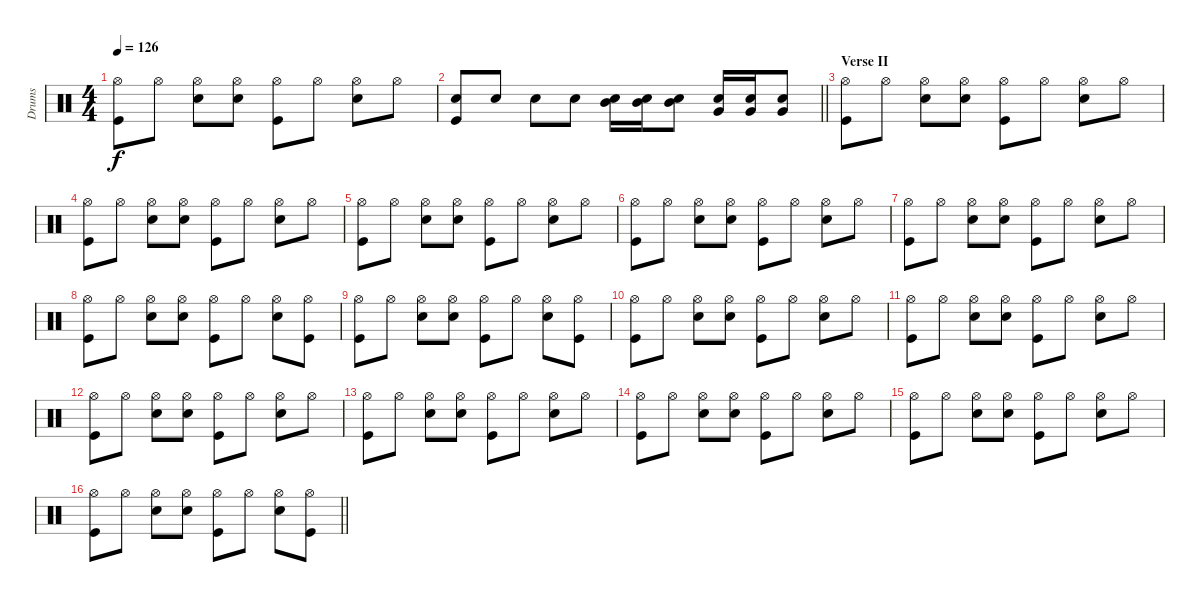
\track ("Drums" "Drums") {instrument percussion}
\staff {score}
\articulation defaults
\ts (4 4)
\tempo 126
\clef neutral
\ks c
("Hi-Hat (open)" "Kick (hit)").8{dy f} "Hi-Hat (open)".8 ("Hi-Hat (open)" "Snare (hit) 2").8 ("Hi-Hat (open)" "Snare (hit) 2").8 ("Hi-Hat (open)" "Kick (hit)").8 "Hi-Hat (open)".8 ("Hi-Hat (open)" "Snare (hit) 2").8 "Hi-Hat (open)".8 |
\barLineRight lightlight
("Kick (hit)" "Snare (hit) 2").8 "Snare (hit) 2".8 "Snare (hit) 2".8 "Snare (hit) 2".8 ("Snare (hit) 2" "Mid Tom (hit)").16 ("Snare (hit) 2" "Mid Tom (hit)").16 ("Snare (hit) 2" "Mid Tom (hit)").8 ("Very Low Tom (hit)" "Snare (hit) 2").16 ("Very Low Tom (hit)" "Snare (hit) 2").16 ("Snare (hit) 2" "Very Low Tom (hit)").8 |
\section ("" "Verse II")
("Kick (hit)" "Hi-Hat (open)").8 "Hi-Hat (open)".8 ("Hi-Hat (open)" "Snare (hit) 2").8 ("Hi-Hat (open)" "Snare (hit) 2").8 ("Hi-Hat (open)" "Kick (hit)").8 "Hi-Hat (open)".8 ("Hi-Hat (open)" "Snare (hit) 2").8 "Hi-Hat (open)".8 |
("Kick (hit)" "Hi-Hat (open)").8 "Hi-Hat (open)".8 ("Hi-Hat (open)" "Snare (hit) 2").8 ("Hi-Hat (open)" "Snare (hit) 2").8 ("Hi-Hat (open)" "Kick (hit)").8 "Hi-Hat (open)".8 ("Hi-Hat (open)" "Snare (hit) 2").8 "Hi-Hat (open)".8 |
("Kick (hit)" "Hi-Hat (open)").8 "Hi-Hat (open)".8 ("Hi-Hat (open)" "Snare (hit) 2").8 ("Hi-Hat (open)" "Snare (hit) 2").8 ("Hi-Hat (open)" "Kick (hit)").8 "Hi-Hat (open)".8 ("Hi-Hat (open)" "Snare (hit) 2").8 "Hi-Hat (open)".8 |
("Kick (hit)" "Hi-Hat (open)").8 "Hi-Hat (open)".8 ("Hi-Hat (open)" "Snare (hit) 2").8 ("Hi-Hat (open)" "Snare (hit) 2").8 ("Hi-Hat (open)" "Kick (hit)").8 "Hi-Hat (open)".8 ("Hi-Hat (open)" "Snare (hit) 2").8 "Hi-Hat (open)".8 |
("Hi-Hat (open)" "Kick (hit)").8 "Hi-Hat (open)".8 ("Hi-Hat (open)" "Snare (hit) 2").8 ("Hi-Hat (open)" "Snare (hit) 2").8 ("Hi-Hat (open)" "Kick (hit)").8 "Hi-Hat (open)".8 ("Hi-Hat (open)" "Snare (hit) 2").8 "Hi-Hat (open)".8 |
("Kick (hit)" "Hi-Hat (open)").8 "Hi-Hat (open)".8 ("Hi-Hat (open)" "Snare (hit) 2").8 ("Hi-Hat (open)" "Snare (hit) 2").8 ("Hi-Hat (open)" "Kick (hit)").8 "Hi-Hat (open)".8 ("Hi-Hat (open)" "Snare (hit) 2").8 ("Hi-Hat (open)" "Kick (hit)").8 |
("Hi-Hat (open)" "Kick (hit)").8 "Hi-Hat (open)".8 ("Hi-Hat (open)" "Snare (hit) 2").8 ("Hi-Hat (open)" "Snare (hit) 2").8 ("Hi-Hat (open)" "Kick (hit)").8 "Hi-Hat (open)".8 ("Hi-Hat (open)" "Snare (hit) 2").8 ("Hi-Hat (open)" "Kick (hit)").8 |
("Kick (hit)" "Hi-Hat (open)").8 "Hi-Hat (open)".8 ("Hi-Hat (open)" "Snare (hit) 2").8 ("Hi-Hat (open)" "Snare (hit) 2").8 ("Hi-Hat (open)" "Kick (hit)").8 "Hi-Hat (open)".8 ("Hi-Hat (open)" "Snare (hit) 2").8 "Hi-Hat (open)".8 |
("Kick (hit)" "Hi-Hat (open)").8 "Hi-Hat (open)".8 ("Hi-Hat (open)" "Snare (hit) 2").8 ("Hi-Hat (open)" "Snare (hit) 2").8 ("Hi-Hat (open)" "Kick (hit)").8 "Hi-Hat (open)".8 ("Hi-Hat (open)" "Snare (hit) 2").8 "Hi-Hat (open)".8 |
("Kick (hit)" "Hi-Hat (open)").8 "Hi-Hat (open)".8 ("Hi-Hat (open)" "Snare (hit) 2").8 ("Hi-Hat (open)" "Snare (hit) 2").8 ("Hi-Hat (open)" "Kick (hit)").8 "Hi-Hat (open)".8 ("Hi-Hat (open)" "Snare (hit) 2").8 "Hi-Hat (open)".8 |
("Kick (hit)" "Hi-Hat (open)").8 "Hi-Hat (open)".8 ("Hi-Hat (open)" "Snare (hit) 2").8 ("Hi-Hat (open)" "Snare (hit) 2").8 ("Hi-Hat (open)" "Kick (hit)").8 "Hi-Hat (open)".8 ("Hi-Hat (open)" "Snare (hit) 2").8 "Hi-Hat (open)".8 |
("Hi-Hat (open)" "Kick (hit)").8 "Hi-Hat (open)".8 ("Hi-Hat (open)" "Snare (hit) 2").8 ("Hi-Hat (open)" "Snare (hit) 2").8 ("Hi-Hat (open)" "Kick (hit)").8 "Hi-Hat (open)".8 ("Hi-Hat (open)" "Snare (hit) 2").8 "Hi-Hat (open)".8 |
("Kick (hit)" "Hi-Hat (open)").8 "Hi-Hat (open)".8 ("Hi-Hat (open)" "Snare (hit) 2").8 ("Hi-Hat (open)" "Snare (hit) 2").8 ("Hi-Hat (open)" "Kick (hit)").8 "Hi-Hat (open)".8 ("Hi-Hat (open)" "Snare (hit) 2").8 "Hi-Hat (open)".8 |
\barLineRight lightlight
("Kick (hit)" "Hi-Hat (open)").8 "Hi-Hat (open)".8 ("Hi-Hat (open)" "Snare (hit) 2").8 ("Hi-Hat (open)" "Snare (hit) 2").8 ("Hi-Hat (open)" "Kick (hit)").8 "Hi-Hat (open)".8 ("Hi-Hat (open)" "Snare (hit) 2").8 ("Hi-Hat (open)" "Kick (hit)").8
